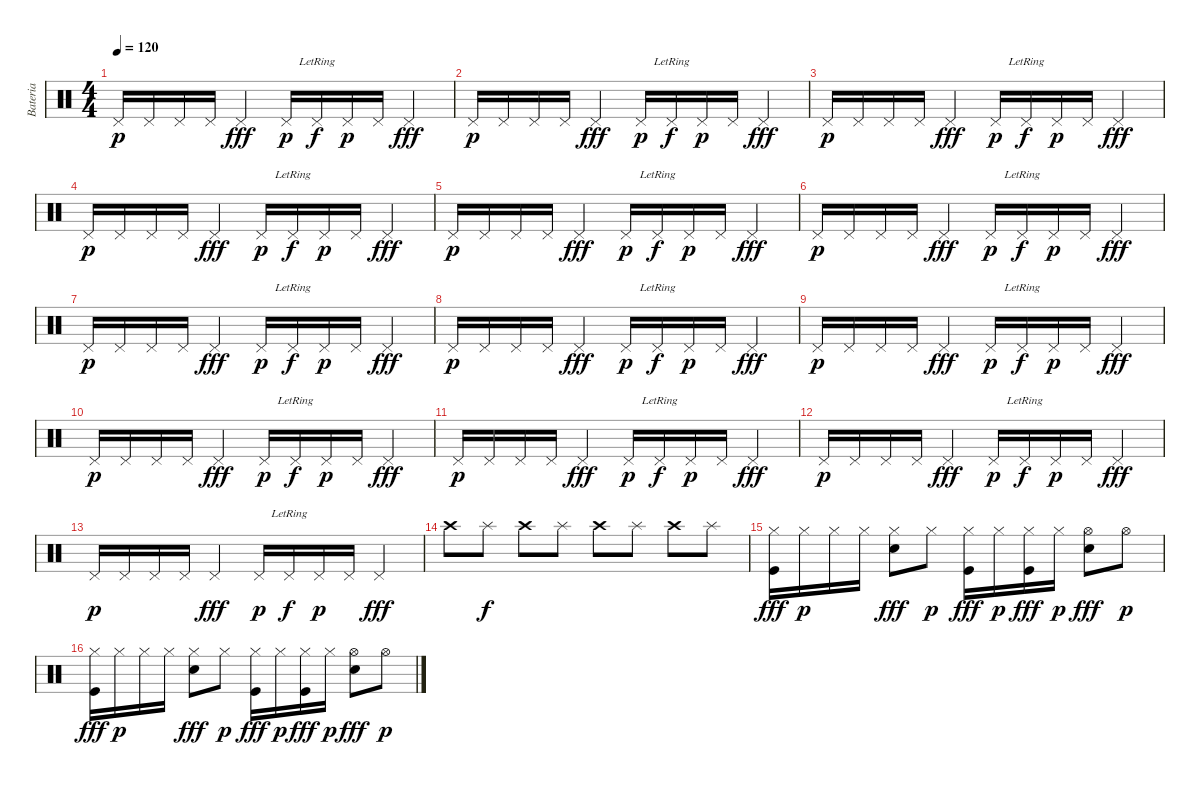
\track ("Bateria" "Bateria") {instrument percussion}
\staff {score}
\articulation defaults
\ts (4 4)
\tempo 120
\clef neutral
\ks c "Pedal Hi-Hat (hit)".16{dy p} "Pedal Hi-Hat (hit)".16 "Pedal Hi-Hat (hit)".16 "Pedal Hi-Hat (hit)".16 "Pedal Hi-Hat (hit)".4{dy fff} "Pedal Hi-Hat (hit)".16{dy p} "Pedal Hi-Hat (hit)"{lr}.16{dy f} "Pedal Hi-Hat (hit)".16{dy p} "Pedal Hi-Hat (hit)".16 "Pedal Hi-Hat (hit)".4{dy fff}
|
"Pedal Hi-Hat (hit)".16{dy p} "Pedal Hi-Hat (hit)".16 "Pedal Hi-Hat (hit)".16 "Pedal Hi-Hat (hit)".16 "Pedal Hi-Hat (hit)".4{dy fff} "Pedal Hi-Hat (hit)".16{dy p} "Pedal Hi-Hat (hit)"{lr}.16{dy f} "Pedal Hi-Hat (hit)".16{dy p} "Pedal Hi-Hat (hit)".16 "Pedal Hi-Hat (hit)".4{dy fff} |
"Pedal Hi-Hat (hit)".16{dy p} "Pedal Hi-Hat (hit)".16 "Pedal Hi-Hat (hit)".16 "Pedal Hi-Hat (hit)".16 "Pedal Hi-Hat (hit)".4{dy fff} "Pedal Hi-Hat (hit)".16{dy p} "Pedal Hi-Hat (hit)"{lr}.16{dy f} "Pedal Hi-Hat (hit)".16{dy p} "Pedal Hi-Hat (hit)".16 "Pedal Hi-Hat (hit)".4{dy fff} |
"Pedal Hi-Hat (hit)".16{dy p} "Pedal Hi-Hat (hit)".16 "Pedal Hi-Hat (hit)".16 "Pedal Hi-Hat (hit)".16 "Pedal Hi-Hat (hit)".4{dy fff} "Pedal Hi-Hat (hit)".16{dy p} "Pedal Hi-Hat (hit)"{lr}.16{dy f} "Pedal Hi-Hat (hit)".16{dy p} "Pedal Hi-Hat (hit)".16 "Pedal Hi-Hat (hit)".4{dy fff} |
"Pedal Hi-Hat (hit)".16{dy p} "Pedal Hi-Hat (hit)".16 "Pedal Hi-Hat (hit)".16 "Pedal Hi-Hat (hit)".16 "Pedal Hi-Hat (hit)".4{dy fff} "Pedal Hi-Hat (hit)".16{dy p} "Pedal Hi-Hat (hit)"{lr}.16{dy f} "Pedal Hi-Hat (hit)".16{dy p} "Pedal Hi-Hat (hit)".16 "Pedal Hi-Hat (hit)".4{dy fff} |
"Pedal Hi-Hat (hit)".16{dy p} "Pedal Hi-Hat (hit)".16 "Pedal Hi-Hat (hit)".16 "Pedal Hi-Hat (hit)".16 "Pedal Hi-Hat (hit)".4{dy fff} "Pedal Hi-Hat (hit)".16{dy p} "Pedal Hi-Hat (hit)"{lr}.16{dy f} "Pedal Hi-Hat (hit)".16{dy p} "Pedal Hi-Hat (hit)".16 "Pedal Hi-Hat (hit)".4{dy fff} |
"Pedal Hi-Hat (hit)".16{dy p} "Pedal Hi-Hat (hit)".16 "Pedal Hi-Hat (hit)".16 "Pedal Hi-Hat (hit)".16 "Pedal Hi-Hat (hit)".4{dy fff} "Pedal Hi-Hat (hit)".16{dy p} "Pedal Hi-Hat (hit)"{lr}.16{dy f} "Pedal Hi-Hat (hit)".16{dy p} "Pedal Hi-Hat (hit)".16 "Pedal Hi-Hat (hit)".4{dy fff} |
"Pedal Hi-Hat (hit)".16{dy p} "Pedal Hi-Hat (hit)".16 "Pedal Hi-Hat (hit)".16 "Pedal Hi-Hat (hit)".16 "Pedal Hi-Hat (hit)".4{dy fff} "Pedal Hi-Hat (hit)".16{dy p} "Pedal Hi-Hat (hit)"{lr}.16{dy f} "Pedal Hi-Hat (hit)".16{dy p} "Pedal Hi-Hat (hit)".16 "Pedal Hi-Hat (hit)".4{dy fff} |
"Pedal Hi-Hat (hit)".16{dy p} "Pedal Hi-Hat (hit)".16 "Pedal Hi-Hat (hit)".16 "Pedal Hi-Hat (hit)".16 "Pedal Hi-Hat (hit)".4{dy fff} "Pedal Hi-Hat (hit)".16{dy p} "Pedal Hi-Hat (hit)"{lr}.16{dy f} "Pedal Hi-Hat (hit)".16{dy p} "Pedal Hi-Hat (hit)".16 "Pedal Hi-Hat (hit)".4{dy fff} |
"Pedal Hi-Hat (hit)".16{dy p} "Pedal Hi-Hat (hit)".16 "Pedal Hi-Hat (hit)".16 "Pedal Hi-Hat (hit)".16 "Pedal Hi-Hat (hit)".4{dy fff} "Pedal Hi-Hat (hit)".16{dy p} "Pedal Hi-Hat (hit)"{lr}.16{dy f} "Pedal Hi-Hat (hit)".16{dy p} "Pedal Hi-Hat (hit)".16 "Pedal Hi-Hat (hit)".4{dy fff} |
"Pedal Hi-Hat (hit)".16{dy p} "Pedal Hi-Hat (hit)".16 "Pedal Hi-Hat (hit)".16 "Pedal Hi-Hat (hit)".16 "Pedal Hi-Hat (hit)".4{dy fff} "Pedal Hi-Hat (hit)".16{dy p} "Pedal Hi-Hat (hit)"{lr}.16{dy f} "Pedal Hi-Hat (hit)".16{dy p} "Pedal Hi-Hat (hit)".16 "Pedal Hi-Hat (hit)".4{dy fff} |
"Pedal Hi-Hat (hit)".16{dy p} "Pedal Hi-Hat (hit)".16 "Pedal Hi-Hat (hit)".16 "Pedal Hi-Hat (hit)".16 "Pedal Hi-Hat (hit)".4{dy fff} "Pedal Hi-Hat (hit)".16{dy p} "Pedal Hi-Hat (hit)"{lr}.16{dy f} "Pedal Hi-Hat (hit)".16{dy p} "Pedal Hi-Hat (hit)".16 "Pedal Hi-Hat (hit)".4{dy fff} |
"Pedal Hi-Hat (hit)".16{dy p} "Pedal Hi-Hat (hit)".16 "Pedal Hi-Hat (hit)".16 "Pedal Hi-Hat (hit)".16 "Pedal Hi-Hat (hit)".4{dy fff} "Pedal Hi-Hat (hit)".16{dy p} "Pedal Hi-Hat (hit)"{lr}.16{dy f} "Pedal Hi-Hat (hit)".16{dy p} "Pedal Hi-Hat (hit)".16 "Pedal Hi-Hat (hit)".4{dy fff} |
"Crash high (hit)".8 "Splash (hit)".8{dy f} "Crash high (hit)".8 "Splash (hit)".8 "Crash high (hit)".8 "Splash (hit)".8 "Crash high (hit)".8 "Splash (hit)".8 |
("Hi-Hat (closed)" "Kick (hit)").16{dy fff} "Hi-Hat (closed)".16{dy p} "Hi-Hat (closed)".16 "Hi-Hat (closed)".16 ("Hi-Hat (closed)" "Snare (hit) 2").8{dy fff} "Hi-Hat (closed)".8{dy p} ("Hi-Hat (closed)" "Kick (hit)").16{dy fff} "Hi-Hat (closed)".16{dy p} ("Hi-Hat (closed)" "Kick (hit)").16{dy fff} "Hi-Hat (closed)".16{dy p} ("Hi-Hat (open)" "Snare (hit) 2").8{dy fff} "Hi-Hat (open)".8{dy p} |
("Hi-Hat (closed)" "Kick (hit)").16{dy fff} "Hi-Hat (closed)".16{dy p} "Hi-Hat (closed)".16 "Hi-Hat (closed)".16 ("Hi-Hat (closed)" "Snare (hit) 2").8{dy fff} "Hi-Hat (closed)".8{dy p} ("Hi-Hat (closed)" "Kick (hit)").16{dy fff} "Hi-Hat (closed)".16{dy p} ("Hi-Hat (closed)" "Kick (hit)").16{dy fff} "Hi-Hat (closed)".16{dy p} ("Hi-Hat (open)" "Snare (hit) 2").8{dy fff} "Hi-Hat (open)".8{dy p}
